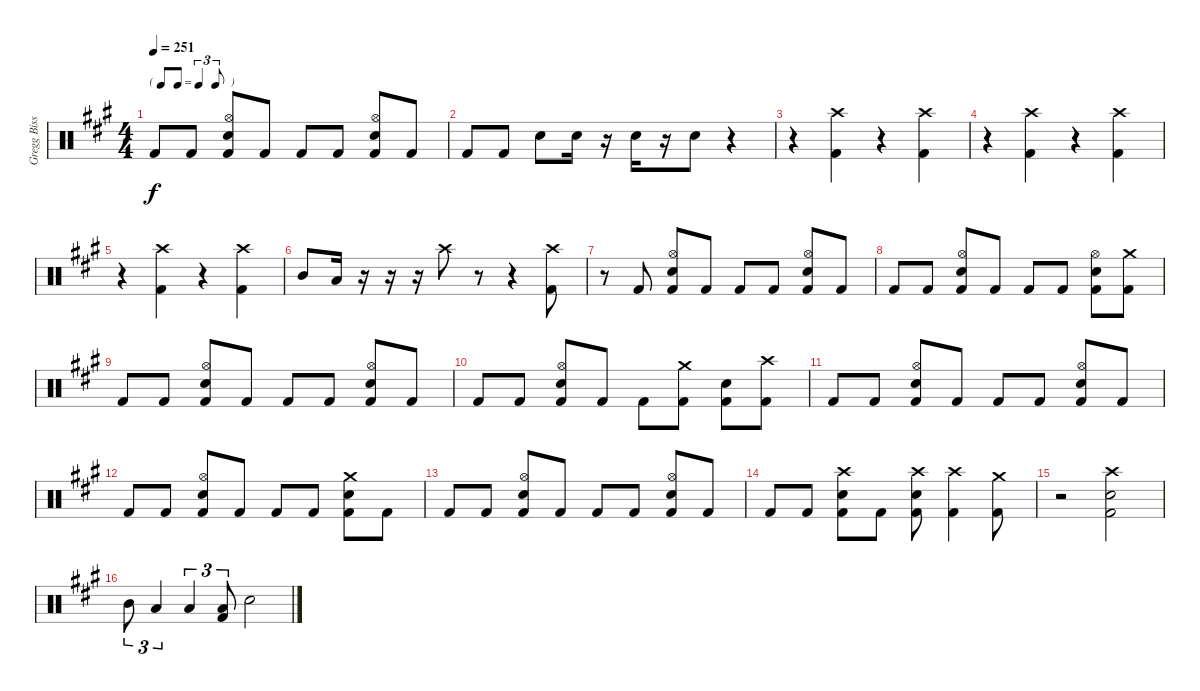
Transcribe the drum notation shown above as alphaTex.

\track ("Gregg Bissonette" "Gregg Biss") {instrument percussion}
\staff {score}
\articulation defaults
\ts (4 4)
\tf triplet8th
\tempo 251
\clef neutral
\ks f#minor "Kick (hit) 2".8{dy f} "Kick (hit) 2".8
("Hi-Hat (open)" "Electric Snare (hit)" "Kick (hit) 2").8 "Kick (hit) 2".8 "Kick (hit) 2".8 "Kick (hit) 2".8 ("Hi-Hat (open)" "Electric Snare (hit)" "Kick (hit) 2").8 "Kick (hit) 2".8 |
"Kick (hit) 2".8 "Kick (hit) 2".8 "Electric Snare (hit)".8 "Electric Snare (hit)".16 r.16 "Electric Snare (hit)".16 r.16 "Electric Snare (hit)".8 r.4 |
r.4 ("Crash high (hit)" "Kick (hit) 2").4 r.4 ("Crash high (hit)" "Kick (hit) 2").4 |
r.4 ("Crash high (hit)" "Kick (hit) 2").4 r.4 ("Crash high (hit)" "Kick (hit) 2").4 |
r.4 ("Crash high (hit)" "Kick (hit) 2").4 r.4 ("Crash high (hit)" "Kick (hit) 2").4 |
"Mid Tom (hit)".8 "Low Tom (hit)".16 r.16 r.16 r.16 "Crash high (hit)".8 r.8 r.4 ("Crash high (hit)" "Kick (hit) 2").8 |
r.8 "Kick (hit) 2".8 ("Hi-Hat (open)" "Electric Snare (hit)" "Kick (hit) 2").8 "Kick (hit) 2".8 "Kick (hit) 2".8 "Kick (hit) 2".8 ("Hi-Hat (open)" "Electric Snare (hit)" "Kick (hit) 2").8 "Kick (hit) 2".8 |
"Kick (hit) 2".8 "Kick (hit) 2".8 ("Hi-Hat (open)" "Electric Snare (hit)" "Kick (hit) 2").8 "Kick (hit) 2".8 "Kick (hit) 2".8 "Kick (hit) 2".8 ("Hi-Hat (open)" "Electric Snare (hit)" "Kick (hit) 2").8 ("Crash medium (hit)" "Kick (hit) 2").8 |
"Kick (hit) 2".8 "Kick (hit) 2".8 ("Hi-Hat (open)" "Electric Snare (hit)" "Kick (hit) 2").8 "Kick (hit) 2".8 "Kick (hit) 2".8 "Kick (hit) 2".8 ("Hi-Hat (open)" "Electric Snare (hit)" "Kick (hit) 2").8 "Kick (hit) 2".8 |
"Kick (hit) 2".8 "Kick (hit) 2".8 ("Hi-Hat (open)" "Electric Snare (hit)" "Kick (hit) 2").8 "Kick (hit) 2".8 "Kick (hit) 2".8 ("Crash medium (hit)" "Kick (hit) 2").8 ("Electric Snare (hit)" "Kick (hit) 2").8 ("Crash high (hit)" "Kick (hit) 2").8 |
"Kick (hit) 2".8 "Kick (hit) 2".8 ("Hi-Hat (open)" "Electric Snare (hit)" "Kick (hit) 2").8 "Kick (hit) 2".8 "Kick (hit) 2".8 "Kick (hit) 2".8 ("Hi-Hat (open)" "Electric Snare (hit)" "Kick (hit) 2").8 "Kick (hit) 2".8 |
"Kick (hit) 2".8 "Kick (hit) 2".8 ("Hi-Hat (open)" "Electric Snare (hit)" "Kick (hit) 2").8 "Kick (hit) 2".8 "Kick (hit) 2".8 "Kick (hit) 2".8 ("Crash medium (hit)" "Electric Snare (hit)" "Kick (hit) 2").8 "Kick (hit) 2".8 |
"Kick (hit) 2".8 "Kick (hit) 2".8 ("Hi-Hat (open)" "Electric Snare (hit)" "Kick (hit) 2").8 "Kick (hit) 2".8 "Kick (hit) 2".8 "Kick (hit) 2".8 ("Hi-Hat (open)" "Electric Snare (hit)" "Kick (hit) 2").8 "Kick (hit) 2".8 |
"Kick (hit) 2".8 "Kick (hit) 2".8 ("Crash high (hit)" "Electric Snare (hit)" "Kick (hit) 2").8 "Kick (hit) 2".8 ("Crash high (hit)" "Electric Snare (hit)" "Kick (hit) 2").8 ("Crash high (hit)" "Kick (hit) 2").4 ("Crash medium (hit)" "Kick (hit) 2").8 |
r.2 ("Crash high (hit)" "Electric Snare (hit)" "Kick (hit) 2").2 |
"Mid Tom (hit)".8{tu (3 2)} "Low Tom (hit)".4{tu (3 2)} "Low Tom (hit)".4{tu (3 2)} ("Low Tom (hit)" "Kick (hit) 2").8{tu (3 2)} "Electric Snare (hit)".2
